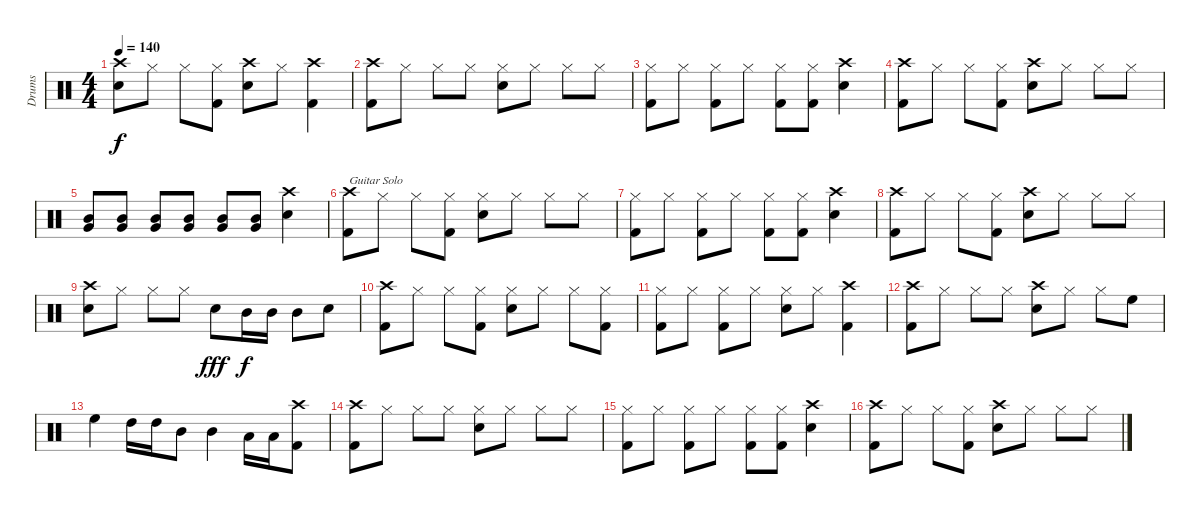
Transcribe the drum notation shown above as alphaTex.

\track ("Drums" "Drums") {instrument percussion}
\staff {score}
\articulation defaults
\ts (4 4)
\tempo 140
\clef neutral
\ks c
("Crash high (hit)" "Snare (hit) 2").8{dy f} "Hi-Hat (closed)".8 "Hi-Hat (closed)".8 ("Hi-Hat (closed)" "Kick (hit) 2").8 ("Crash high (hit)" "Snare (hit) 2").8 "Hi-Hat (closed)".8 ("Crash high (hit)" "Kick (hit) 2").4 |
("Crash high (hit)" "Kick (hit) 2").8 "Hi-Hat (closed)".8 "Hi-Hat (closed)".8 "Hi-Hat (closed)".8 ("Hi-Hat (closed)" "Snare (hit) 2").8 "Hi-Hat (closed)".8 "Hi-Hat (closed)".8 "Hi-Hat (closed)".8 |
("Hi-Hat (closed)" "Kick (hit) 2").8 "Hi-Hat (closed)".8 ("Hi-Hat (closed)" "Kick (hit) 2").8 "Hi-Hat (closed)".8 ("Hi-Hat (closed)" "Kick (hit) 2").8 ("Hi-Hat (closed)" "Kick (hit) 2").8 ("Crash high (hit)" "Snare (hit) 2").4 |
("Crash high (hit)" "Kick (hit) 2").8 "Hi-Hat (closed)".8 "Hi-Hat (closed)".8 ("Hi-Hat (closed)" "Kick (hit) 2").8 ("Crash high (hit)" "Snare (hit) 2").8 "Hi-Hat (closed)".8 "Hi-Hat (closed)".8 "Hi-Hat (closed)".8 |
("Mid Tom (hit)" "Very Low Tom (hit)").8 ("Mid Tom (hit)" "Very Low Tom (hit)").8 ("Mid Tom (hit)" "Very Low Tom (hit)").8 ("Mid Tom (hit)" "Very Low Tom (hit)").8 ("Mid Tom (hit)" "Very Low Tom (hit)").8 ("Mid Tom (hit)" "Very Low Tom (hit)").8 ("Crash high (hit)" "Snare (hit) 2").4 |
("Crash high (hit)" "Kick (hit) 2").8{txt "Guitar Solo"} "Hi-Hat (closed)".8 "Hi-Hat (closed)".8 ("Hi-Hat (closed)" "Kick (hit) 2").8 ("Hi-Hat (closed)" "Snare (hit) 2").8 "Hi-Hat (closed)".8 "Hi-Hat (closed)".8 "Hi-Hat (closed)".8 |
("Hi-Hat (closed)" "Kick (hit) 2").8 "Hi-Hat (closed)".8 ("Hi-Hat (closed)" "Kick (hit) 2").8 "Hi-Hat (closed)".8 ("Hi-Hat (closed)" "Kick (hit) 2").8 ("Hi-Hat (closed)" "Kick (hit) 2").8 ("Crash high (hit)" "Snare (hit) 2").4 |
("Crash high (hit)" "Kick (hit) 2").8 "Hi-Hat (closed)".8 "Hi-Hat (closed)".8 ("Hi-Hat (closed)" "Kick (hit) 2").8 ("Crash high (hit)" "Snare (hit) 2").8 "Hi-Hat (closed)".8 "Hi-Hat (closed)".8 "Hi-Hat (closed)".8 |
("Crash high (hit)" "Snare (hit) 2").8 "Hi-Hat (closed)".8 "Hi-Hat (closed)".8 "Hi-Hat (closed)".8 "Snare (hit) 2".8{dy fff} "Mid Tom (hit)".16{dy f} "Mid Tom (hit)".16 "Mid Tom (hit)".8 "Snare (hit) 2".8 |
("Crash high (hit)" "Kick (hit) 2").8 "Hi-Hat (closed)".8 "Hi-Hat (closed)".8 ("Hi-Hat (closed)" "Kick (hit) 2").8 ("Hi-Hat (closed)" "Snare (hit) 2").8 "Hi-Hat (closed)".8 "Hi-Hat (closed)".8 ("Hi-Hat (closed)" "Kick (hit) 2").8 |
("Hi-Hat (closed)" "Kick (hit) 2").8 "Hi-Hat (closed)".8 ("Hi-Hat (closed)" "Kick (hit) 2").8 "Hi-Hat (closed)".8 ("Hi-Hat (closed)" "Snare (hit) 2").8 "Hi-Hat (closed)".8 ("Crash high (hit)" "Kick (hit) 2").4 |
("Crash high (hit)" "Kick (hit) 2").8 "Hi-Hat (closed)".8 "Hi-Hat (closed)".8 "Hi-Hat (closed)".8 ("Crash high (hit)" "Snare (hit) 2").8 "Hi-Hat (closed)".8 "Hi-Hat (closed)".8 "High Floor Tom (hit)".8 |
"High Floor Tom (hit)".4 "High Tom (hit)".16 "High Tom (hit)".16 "Mid Tom (hit)".8 "Mid Tom (hit)".4 "Low Tom (hit)".16 "Low Tom (hit)".16 ("Crash high (hit)" "Kick (hit) 2").8 |
("Crash high (hit)" "Kick (hit) 2").8 "Hi-Hat (closed)".8 "Hi-Hat (closed)".8 "Hi-Hat (closed)".8 ("Hi-Hat (closed)" "Snare (hit) 2").8 "Hi-Hat (closed)".8 "Hi-Hat (closed)".8 "Hi-Hat (closed)".8 |
("Hi-Hat (closed)" "Kick (hit) 2").8 "Hi-Hat (closed)".8 ("Hi-Hat (closed)" "Kick (hit) 2").8 "Hi-Hat (closed)".8 ("Hi-Hat (closed)" "Kick (hit) 2").8 ("Hi-Hat (closed)" "Kick (hit) 2").8 ("Crash high (hit)" "Snare (hit) 2").4 |
("Crash high (hit)" "Kick (hit) 2").8 "Hi-Hat (closed)".8 "Hi-Hat (closed)".8 ("Hi-Hat (closed)" "Kick (hit) 2").8 ("Crash high (hit)" "Snare (hit) 2").8 "Hi-Hat (closed)".8 "Hi-Hat (closed)".8 "Hi-Hat (closed)".8
